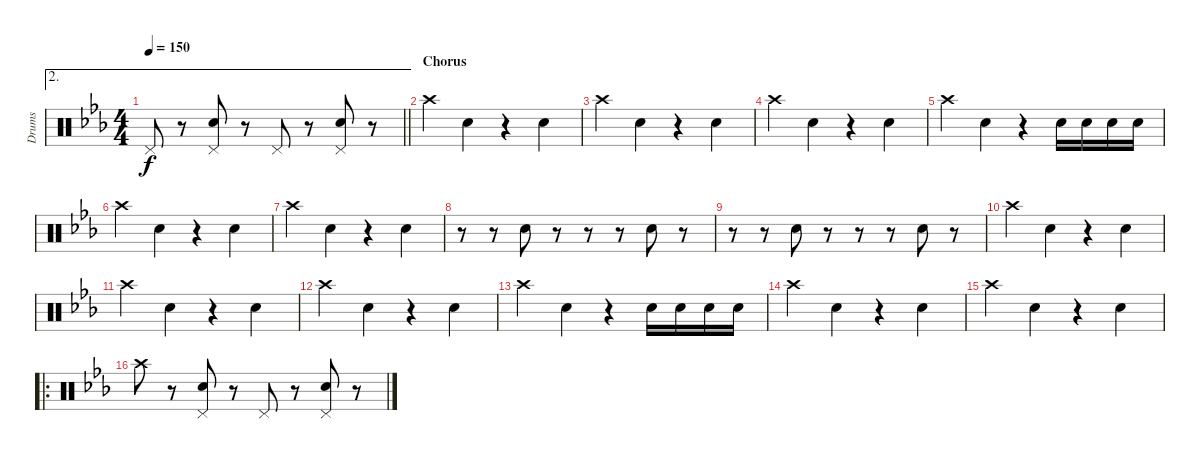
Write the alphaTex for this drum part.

\track ("Drums" "Drums") {instrument percussion}
\staff {score}
\articulation defaults
\ae 2
\ts (4 4)
\tempo 150
\clef neutral
\barLineRight lightlight
\ks cminor "Pedal Hi-Hat (hit)".8{dy f}
r.8 ("Pedal Hi-Hat (hit)" "Electric Snare (hit)").8 r.8 "Pedal Hi-Hat (hit)".8 r.8 ("Pedal Hi-Hat (hit)" "Electric Snare (hit)").8 r.8 |
\section ("" "Chorus")
"Crash high (hit)".4 "Electric Snare (hit)".4 r.4 "Electric Snare (hit)".4 |
"Crash high (hit)".4 "Electric Snare (hit)".4 r.4 "Electric Snare (hit)".4 |
"Crash high (hit)".4 "Electric Snare (hit)".4 r.4 "Electric Snare (hit)".4 |
"Crash high (hit)".4 "Electric Snare (hit)".4 r.4 "Electric Snare (hit)".16 "Electric Snare (hit)".16 "Electric Snare (hit)".16 "Electric Snare (hit)".16 |
"Crash high (hit)".4 "Electric Snare (hit)".4 r.4 "Electric Snare (hit)".4 |
"Crash high (hit)".4 "Electric Snare (hit)".4 r.4 "Electric Snare (hit)".4 |
r.8 r.8 "Electric Snare (hit)".8 r.8 r.8 r.8 "Electric Snare (hit)".8 r.8 |
r.8 r.8 "Electric Snare (hit)".8 r.8 r.8 r.8 "Electric Snare (hit)".8 r.8 |
"Crash high (hit)".4 "Electric Snare (hit)".4 r.4 "Electric Snare (hit)".4 |
"Crash high (hit)".4 "Electric Snare (hit)".4 r.4 "Electric Snare (hit)".4 |
"Crash high (hit)".4 "Electric Snare (hit)".4 r.4 "Electric Snare (hit)".4 |
"Crash high (hit)".4 "Electric Snare (hit)".4 r.4 "Electric Snare (hit)".16 "Electric Snare (hit)".16 "Electric Snare (hit)".16 "Electric Snare (hit)".16 |
"Crash high (hit)".4 "Electric Snare (hit)".4 r.4 "Electric Snare (hit)".4 |
"Crash high (hit)".4 "Electric Snare (hit)".4 r.4 "Electric Snare (hit)".4 |
\ro "Crash high (hit)".8
r.8 ("Pedal Hi-Hat (hit)" "Electric Snare (hit)").8 r.8 "Pedal Hi-Hat (hit)".8 r.8 ("Pedal Hi-Hat (hit)" "Electric Snare (hit)").8 r.8
